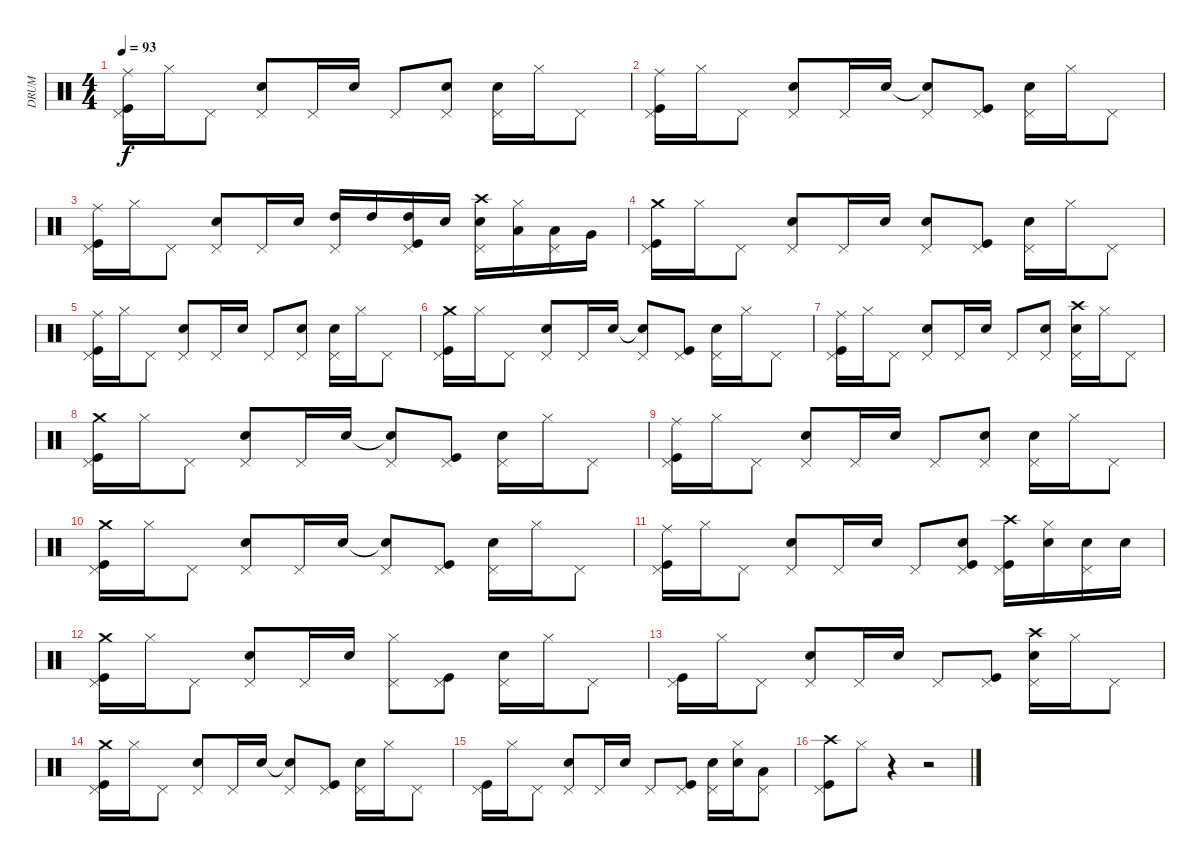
\track ("DRUM" "DRUM") {instrument percussion}
\staff {score}
\articulation defaults
\ts (4 4)
\tempo 93
\clef neutral
\ks c
("Ride (middle)" "Kick (hit)" "Pedal Hi-Hat (hit)").16{dy f} "Hi-Hat (closed)".16 "Pedal Hi-Hat (hit)".8 ("Snare (hit) 2" "Pedal Hi-Hat (hit)").8 "Pedal Hi-Hat (hit)".16 "Snare (hit) 2".16 "Pedal Hi-Hat (hit)".8 ("Snare (hit) 2" "Pedal Hi-Hat (hit)").8 ("Snare (hit) 2" "Pedal Hi-Hat (hit)").16 "Hi-Hat (closed)".16 "Pedal Hi-Hat (hit)".8 |
("Ride (middle)" "Kick (hit)" "Pedal Hi-Hat (hit)").16 "Hi-Hat (closed)".16 "Pedal Hi-Hat (hit)".8 ("Snare (hit) 2" "Pedal Hi-Hat (hit)").8 "Pedal Hi-Hat (hit)".16 "Snare (hit) 2".16 ("Snare (hit) 2"{t} "Pedal Hi-Hat (hit)").8 ("Kick (hit)" "Pedal Hi-Hat (hit)").8 ("Snare (hit) 2" "Pedal Hi-Hat (hit)").16 "Hi-Hat (closed)".16 "Pedal Hi-Hat (hit)".8 |
("Ride (middle)" "Kick (hit)" "Pedal Hi-Hat (hit)").16 "Hi-Hat (closed)".16 "Pedal Hi-Hat (hit)".8 ("Snare (hit) 2" "Pedal Hi-Hat (hit)").8 "Pedal Hi-Hat (hit)".16 "Snare (hit) 2".16 ("High Tom (hit)" "Pedal Hi-Hat (hit)").16 "High Tom (hit)".16 ("High Tom (hit)" "Kick (hit)" "Pedal Hi-Hat (hit)").16 "Snare (hit) 2".16 ("Crash high (hit)" "Snare (hit) 2" "Pedal Hi-Hat (hit)").16 ("Hi-Hat (closed)" "Low Tom (hit)").16 ("Low Tom (hit)" "Pedal Hi-Hat (hit)").16 "Very Low Tom (hit)".16 |
("Crash medium (hit)" "Kick (hit)" "Pedal Hi-Hat (hit)").16 "Hi-Hat (closed)".16 "Pedal Hi-Hat (hit)".8 ("Snare (hit) 2" "Pedal Hi-Hat (hit)").8 "Pedal Hi-Hat (hit)".16 "Snare (hit) 2".16 ("Snare (hit) 2" "Pedal Hi-Hat (hit)").8 ("Kick (hit)" "Pedal Hi-Hat (hit)").8 ("Snare (hit) 2" "Pedal Hi-Hat (hit)").16 "Hi-Hat (closed)".16 "Pedal Hi-Hat (hit)".8 |
("Ride (middle)" "Kick (hit)" "Pedal Hi-Hat (hit)").16 "Hi-Hat (closed)".16 "Pedal Hi-Hat (hit)".8 ("Snare (hit) 2" "Pedal Hi-Hat (hit)").8 "Pedal Hi-Hat (hit)".16 "Snare (hit) 2".16 "Pedal Hi-Hat (hit)".8 ("Snare (hit) 2" "Pedal Hi-Hat (hit)").8 ("Snare (hit) 2" "Pedal Hi-Hat (hit)").16 "Hi-Hat (closed)".16 "Pedal Hi-Hat (hit)".8 |
("Crash medium (hit)" "Kick (hit)" "Pedal Hi-Hat (hit)").16 "Hi-Hat (closed)".16 "Pedal Hi-Hat (hit)".8 ("Snare (hit) 2" "Pedal Hi-Hat (hit)").8 "Pedal Hi-Hat (hit)".16 "Snare (hit) 2".16 ("Snare (hit) 2"{t} "Pedal Hi-Hat (hit)").8 ("Kick (hit)" "Pedal Hi-Hat (hit)").8 ("Snare (hit) 2" "Pedal Hi-Hat (hit)").16 "Hi-Hat (closed)".16 "Pedal Hi-Hat (hit)".8 |
("Ride (middle)" "Kick (hit)" "Pedal Hi-Hat (hit)").16 "Hi-Hat (closed)".16 "Pedal Hi-Hat (hit)".8 ("Snare (hit) 2" "Pedal Hi-Hat (hit)").8 "Pedal Hi-Hat (hit)".16 "Snare (hit) 2".16 "Pedal Hi-Hat (hit)".8 ("Snare (hit) 2" "Pedal Hi-Hat (hit)").8 ("Crash high (hit)" "Snare (hit) 2" "Pedal Hi-Hat (hit)").16 "Hi-Hat (closed)".16 "Pedal Hi-Hat (hit)".8 |
("Crash medium (hit)" "Kick (hit)" "Pedal Hi-Hat (hit)").16 "Hi-Hat (closed)".16 "Pedal Hi-Hat (hit)".8 ("Snare (hit) 2" "Pedal Hi-Hat (hit)").8 "Pedal Hi-Hat (hit)".16 "Snare (hit) 2".16 ("Snare (hit) 2"{t} "Pedal Hi-Hat (hit)").8 ("Kick (hit)" "Pedal Hi-Hat (hit)").8 ("Snare (hit) 2" "Pedal Hi-Hat (hit)").16 "Hi-Hat (closed)".16 "Pedal Hi-Hat (hit)".8 |
("Ride (middle)" "Kick (hit)" "Pedal Hi-Hat (hit)").16 "Hi-Hat (closed)".16 "Pedal Hi-Hat (hit)".8 ("Snare (hit) 2" "Pedal Hi-Hat (hit)").8 "Pedal Hi-Hat (hit)".16 "Snare (hit) 2".16 "Pedal Hi-Hat (hit)".8 ("Snare (hit) 2" "Pedal Hi-Hat (hit)").8 ("Snare (hit) 2" "Pedal Hi-Hat (hit)").16 "Hi-Hat (closed)".16 "Pedal Hi-Hat (hit)".8 |
("Crash medium (hit)" "Kick (hit)" "Pedal Hi-Hat (hit)").16 "Hi-Hat (closed)".16 "Pedal Hi-Hat (hit)".8 ("Snare (hit) 2" "Pedal Hi-Hat (hit)").8 "Pedal Hi-Hat (hit)".16 "Snare (hit) 2".16 ("Snare (hit) 2"{t} "Pedal Hi-Hat (hit)").8 ("Kick (hit)" "Pedal Hi-Hat (hit)").8 ("Snare (hit) 2" "Pedal Hi-Hat (hit)").16 "Hi-Hat (closed)".16 "Pedal Hi-Hat (hit)".8 |
("Ride (middle)" "Kick (hit)" "Pedal Hi-Hat (hit)").16 "Hi-Hat (closed)".16 "Pedal Hi-Hat (hit)".8 ("Snare (hit) 2" "Pedal Hi-Hat (hit)").8 "Pedal Hi-Hat (hit)".16 "Snare (hit) 2".16 "Pedal Hi-Hat (hit)".8 ("Snare (hit) 2" "Kick (hit)" "Pedal Hi-Hat (hit)").8 ("Crash high (hit)" "Kick (hit)" "Pedal Hi-Hat (hit)").16 ("Hi-Hat (closed)" "Snare (hit) 2").16 ("Snare (hit) 2" "Pedal Hi-Hat (hit)").16 "Snare (hit) 2".16 |
("Crash medium (hit)" "Kick (hit)" "Pedal Hi-Hat (hit)").16 "Hi-Hat (closed)".16 "Pedal Hi-Hat (hit)".8 ("Snare (hit) 2" "Pedal Hi-Hat (hit)").8 "Pedal Hi-Hat (hit)".16 "Snare (hit) 2".16 ("Hi-Hat (closed)" "Pedal Hi-Hat (hit)").8 ("Kick (hit)" "Pedal Hi-Hat (hit)").8 ("Snare (hit) 2" "Pedal Hi-Hat (hit)").16 "Hi-Hat (closed)".16 "Pedal Hi-Hat (hit)".8 |
("Kick (hit)" "Pedal Hi-Hat (hit)").16 "Hi-Hat (closed)".16 "Pedal Hi-Hat (hit)".8 ("Snare (hit) 2" "Pedal Hi-Hat (hit)").8 "Pedal Hi-Hat (hit)".16 "Snare (hit) 2".16 "Pedal Hi-Hat (hit)".8 ("Kick (hit)" "Pedal Hi-Hat (hit)").8 ("Crash high (hit)" "Snare (hit) 2" "Pedal Hi-Hat (hit)").16 "Hi-Hat (closed)".16 "Pedal Hi-Hat (hit)".8 |
("Crash medium (hit)" "Kick (hit)" "Pedal Hi-Hat (hit)").16 "Hi-Hat (closed)".16 "Pedal Hi-Hat (hit)".8 ("Snare (hit) 2" "Pedal Hi-Hat (hit)").8 "Pedal Hi-Hat (hit)".16 "Snare (hit) 2".16 ("Snare (hit) 2"{t} "Pedal Hi-Hat (hit)").8 ("Kick (hit)" "Pedal Hi-Hat (hit)").8 ("Snare (hit) 2" "Pedal Hi-Hat (hit)").16 "Hi-Hat (closed)".16 "Pedal Hi-Hat (hit)".8 |
("Kick (hit)" "Pedal Hi-Hat (hit)").16 "Hi-Hat (closed)".16 "Pedal Hi-Hat (hit)".8 ("Snare (hit) 2" "Pedal Hi-Hat (hit)").8 "Pedal Hi-Hat (hit)".16 "Snare (hit) 2".16 "Pedal Hi-Hat (hit)".8 ("Kick (hit)" "Pedal Hi-Hat (hit)").8 ("Snare (hit) 2" "Pedal Hi-Hat (hit)").16 ("Snare (hit) 2" "Hi-Hat (closed)").16 ("Low Tom (hit)" "Pedal Hi-Hat (hit)").8 |
("Crash high (hit)" "Kick (hit)" "Pedal Hi-Hat (hit)").8 "Hi-Hat (closed)".8 r.4 r.2
